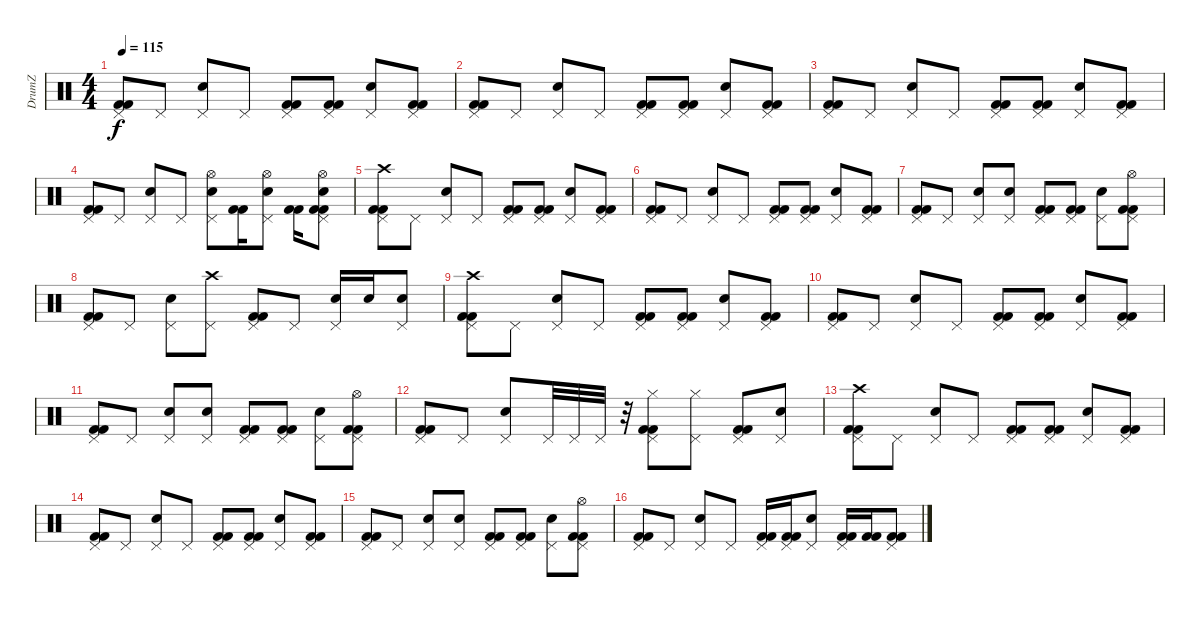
\track ("DrumZ" "DrumZ") {instrument percussion}
\staff {score}
\articulation defaults
\ts (4 4)
\tempo 115
\clef neutral
\ks c
("Pedal Hi-Hat (hit)" "Kick (hit) 2" "Kick (hit) 2").8{dy f} "Pedal Hi-Hat (hit)".8 ("Pedal Hi-Hat (hit)" "Electric Snare (hit)").8 "Pedal Hi-Hat (hit)".8 ("Pedal Hi-Hat (hit)" "Kick (hit) 2" "Kick (hit) 2").8 ("Pedal Hi-Hat (hit)" "Kick (hit) 2" "Kick (hit) 2").8 ("Pedal Hi-Hat (hit)" "Electric Snare (hit)").8 ("Pedal Hi-Hat (hit)" "Kick (hit) 2" "Kick (hit) 2").8 |
("Pedal Hi-Hat (hit)" "Kick (hit) 2" "Kick (hit) 2").8 "Pedal Hi-Hat (hit)".8 ("Pedal Hi-Hat (hit)" "Electric Snare (hit)").8 "Pedal Hi-Hat (hit)".8 ("Pedal Hi-Hat (hit)" "Kick (hit) 2" "Kick (hit) 2").8 ("Pedal Hi-Hat (hit)" "Kick (hit) 2" "Kick (hit) 2").8 ("Pedal Hi-Hat (hit)" "Electric Snare (hit)").8 ("Pedal Hi-Hat (hit)" "Kick (hit) 2" "Kick (hit) 2").8 |
("Pedal Hi-Hat (hit)" "Kick (hit) 2" "Kick (hit) 2").8 "Pedal Hi-Hat (hit)".8 ("Pedal Hi-Hat (hit)" "Electric Snare (hit)").8 "Pedal Hi-Hat (hit)".8 ("Pedal Hi-Hat (hit)" "Kick (hit) 2" "Kick (hit) 2").8 ("Pedal Hi-Hat (hit)" "Kick (hit) 2" "Kick (hit) 2").8 ("Pedal Hi-Hat (hit)" "Electric Snare (hit)").8 ("Pedal Hi-Hat (hit)" "Kick (hit) 2" "Kick (hit) 2").8 |
("Pedal Hi-Hat (hit)" "Kick (hit) 2" "Kick (hit) 2").8 "Pedal Hi-Hat (hit)".8 ("Pedal Hi-Hat (hit)" "Electric Snare (hit)").8 "Pedal Hi-Hat (hit)".8 ("Pedal Hi-Hat (hit)" "Electric Snare (hit)" "Hi-Hat (open)").8 ("Kick (hit) 2" "Kick (hit) 2").16 ("Pedal Hi-Hat (hit)" "Electric Snare (hit)" "Hi-Hat (open)").8 ("Kick (hit) 2" "Kick (hit) 2").16 ("Pedal Hi-Hat (hit)" "Electric Snare (hit)" "Hi-Hat (open)" "Kick (hit) 2" "Kick (hit) 2").8 |
("Pedal Hi-Hat (hit)" "Crash high (hit)" "Kick (hit) 2" "Kick (hit) 2").8 "Pedal Hi-Hat (hit)".8 ("Pedal Hi-Hat (hit)" "Electric Snare (hit)").8 "Pedal Hi-Hat (hit)".8 ("Pedal Hi-Hat (hit)" "Kick (hit) 2" "Kick (hit) 2").8 ("Pedal Hi-Hat (hit)" "Kick (hit) 2" "Kick (hit) 2").8 ("Pedal Hi-Hat (hit)" "Electric Snare (hit)").8 ("Pedal Hi-Hat (hit)" "Kick (hit) 2" "Kick (hit) 2").8 |
("Pedal Hi-Hat (hit)" "Kick (hit) 2" "Kick (hit) 2").8 "Pedal Hi-Hat (hit)".8 ("Pedal Hi-Hat (hit)" "Electric Snare (hit)").8 "Pedal Hi-Hat (hit)".8 ("Pedal Hi-Hat (hit)" "Kick (hit) 2" "Kick (hit) 2").8 ("Pedal Hi-Hat (hit)" "Kick (hit) 2" "Kick (hit) 2").8 ("Pedal Hi-Hat (hit)" "Electric Snare (hit)").8 ("Pedal Hi-Hat (hit)" "Kick (hit) 2" "Kick (hit) 2").8 |
("Pedal Hi-Hat (hit)" "Kick (hit) 2" "Kick (hit) 2").8 "Pedal Hi-Hat (hit)".8 ("Pedal Hi-Hat (hit)" "Electric Snare (hit)").8 ("Pedal Hi-Hat (hit)" "Electric Snare (hit)").8 ("Pedal Hi-Hat (hit)" "Kick (hit) 2" "Kick (hit) 2").8 ("Pedal Hi-Hat (hit)" "Kick (hit) 2" "Kick (hit) 2").8 ("Pedal Hi-Hat (hit)" "Electric Snare (hit)").8 ("Pedal Hi-Hat (hit)" "Hi-Hat (open)" "Kick (hit) 2" "Kick (hit) 2").8 |
("Pedal Hi-Hat (hit)" "Kick (hit) 2" "Kick (hit) 2").8 "Pedal Hi-Hat (hit)".8 ("Pedal Hi-Hat (hit)" "Electric Snare (hit)").8 ("Pedal Hi-Hat (hit)" "Crash high (hit)").8 ("Pedal Hi-Hat (hit)" "Kick (hit) 2" "Kick (hit) 2").8 "Pedal Hi-Hat (hit)".8 ("Pedal Hi-Hat (hit)" "Electric Snare (hit)").16 "Electric Snare (hit)".16 ("Pedal Hi-Hat (hit)" "Electric Snare (hit)").8 |
("Pedal Hi-Hat (hit)" "Crash high (hit)" "Kick (hit) 2" "Kick (hit) 2").8 "Pedal Hi-Hat (hit)".8 ("Pedal Hi-Hat (hit)" "Electric Snare (hit)").8 "Pedal Hi-Hat (hit)".8 ("Pedal Hi-Hat (hit)" "Kick (hit) 2" "Kick (hit) 2").8 ("Pedal Hi-Hat (hit)" "Kick (hit) 2" "Kick (hit) 2").8 ("Pedal Hi-Hat (hit)" "Electric Snare (hit)").8 ("Pedal Hi-Hat (hit)" "Kick (hit) 2" "Kick (hit) 2").8 |
("Pedal Hi-Hat (hit)" "Kick (hit) 2" "Kick (hit) 2").8 "Pedal Hi-Hat (hit)".8 ("Pedal Hi-Hat (hit)" "Electric Snare (hit)").8 "Pedal Hi-Hat (hit)".8 ("Pedal Hi-Hat (hit)" "Kick (hit) 2" "Kick (hit) 2").8 ("Pedal Hi-Hat (hit)" "Kick (hit) 2" "Kick (hit) 2").8 ("Pedal Hi-Hat (hit)" "Electric Snare (hit)").8 ("Pedal Hi-Hat (hit)" "Kick (hit) 2" "Kick (hit) 2").8 |
("Pedal Hi-Hat (hit)" "Kick (hit) 2" "Kick (hit) 2").8 "Pedal Hi-Hat (hit)".8 ("Pedal Hi-Hat (hit)" "Electric Snare (hit)").8 ("Pedal Hi-Hat (hit)" "Electric Snare (hit)").8 ("Pedal Hi-Hat (hit)" "Kick (hit) 2" "Kick (hit) 2").8 ("Pedal Hi-Hat (hit)" "Kick (hit) 2" "Kick (hit) 2").8 ("Pedal Hi-Hat (hit)" "Electric Snare (hit)").8 ("Pedal Hi-Hat (hit)" "Hi-Hat (open)" "Kick (hit) 2" "Kick (hit) 2").8 |
("Pedal Hi-Hat (hit)" "Kick (hit) 2" "Kick (hit) 2").8 "Pedal Hi-Hat (hit)".8 ("Pedal Hi-Hat (hit)" "Electric Snare (hit)").8 "Pedal Hi-Hat (hit)".32 "Pedal Hi-Hat (hit)".32 "Pedal Hi-Hat (hit)".32 r.32 ("Pedal Hi-Hat (hit)" "Hi-Hat (closed)" "Kick (hit) 2" "Kick (hit) 2").8 ("Pedal Hi-Hat (hit)" "Hi-Hat (closed)").8 ("Pedal Hi-Hat (hit)" "Kick (hit) 2" "Kick (hit) 2").8 ("Pedal Hi-Hat (hit)" "Electric Snare (hit)").8 |
("Pedal Hi-Hat (hit)" "Crash high (hit)" "Kick (hit) 2" "Kick (hit) 2").8 "Pedal Hi-Hat (hit)".8 ("Pedal Hi-Hat (hit)" "Electric Snare (hit)").8 "Pedal Hi-Hat (hit)".8 ("Pedal Hi-Hat (hit)" "Kick (hit) 2" "Kick (hit) 2").8 ("Pedal Hi-Hat (hit)" "Kick (hit) 2" "Kick (hit) 2").8 ("Pedal Hi-Hat (hit)" "Electric Snare (hit)").8 ("Pedal Hi-Hat (hit)" "Kick (hit) 2" "Kick (hit) 2").8 |
("Pedal Hi-Hat (hit)" "Kick (hit) 2" "Kick (hit) 2").8 "Pedal Hi-Hat (hit)".8 ("Pedal Hi-Hat (hit)" "Electric Snare (hit)").8 "Pedal Hi-Hat (hit)".8 ("Pedal Hi-Hat (hit)" "Kick (hit) 2" "Kick (hit) 2").8 ("Pedal Hi-Hat (hit)" "Kick (hit) 2" "Kick (hit) 2").8 ("Pedal Hi-Hat (hit)" "Electric Snare (hit)").8 ("Pedal Hi-Hat (hit)" "Kick (hit) 2" "Kick (hit) 2").8 |
("Pedal Hi-Hat (hit)" "Kick (hit) 2" "Kick (hit) 2").8 "Pedal Hi-Hat (hit)".8 ("Pedal Hi-Hat (hit)" "Electric Snare (hit)").8 ("Pedal Hi-Hat (hit)" "Electric Snare (hit)").8 ("Pedal Hi-Hat (hit)" "Kick (hit) 2" "Kick (hit) 2").8 ("Pedal Hi-Hat (hit)" "Kick (hit) 2" "Kick (hit) 2").8 ("Pedal Hi-Hat (hit)" "Electric Snare (hit)").8 ("Pedal Hi-Hat (hit)" "Hi-Hat (open)" "Kick (hit) 2" "Kick (hit) 2").8 |
("Pedal Hi-Hat (hit)" "Kick (hit) 2" "Kick (hit) 2").8 "Pedal Hi-Hat (hit)".8 ("Pedal Hi-Hat (hit)" "Electric Snare (hit)").8 "Pedal Hi-Hat (hit)".8 ("Pedal Hi-Hat (hit)" "Kick (hit) 2" "Kick (hit) 2").16 ("Pedal Hi-Hat (hit)" "Kick (hit) 2" "Kick (hit) 2").16 ("Pedal Hi-Hat (hit)" "Electric Snare (hit)").8 ("Pedal Hi-Hat (hit)" "Kick (hit) 2" "Kick (hit) 2").16 ("Kick (hit) 2" "Kick (hit) 2").16 ("Pedal Hi-Hat (hit)" "Kick (hit) 2" "Kick (hit) 2").8
